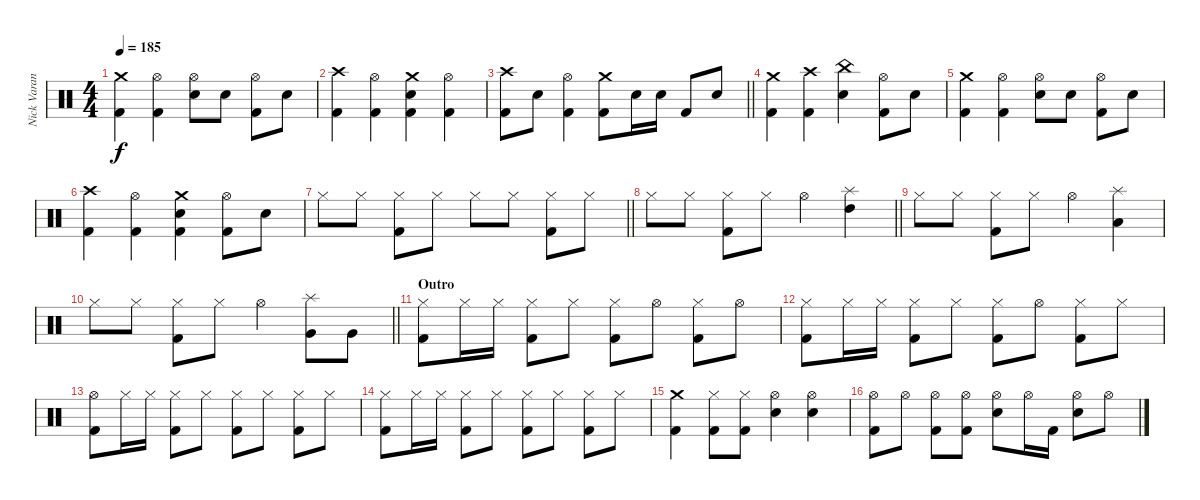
\track ("Nick Varano (Drums)" "Nick Varan") {instrument percussion}
\staff {score}
\articulation defaults
\ts (4 4)
\tempo 185
\clef neutral
\ks c
("Crash medium (hit)" "Kick (hit) 2").4{dy f} ("Hi-Hat (open)" "Kick (hit) 2").4 ("Hi-Hat (open)" "Electric Snare (hit)").8 "Electric Snare (hit)".8 ("Hi-Hat (open)" "Kick (hit) 2").8 "Electric Snare (hit)".8 |
("Crash high (hit)" "Kick (hit) 2").4 ("Hi-Hat (open)" "Kick (hit) 2").4 ("Crash medium (hit)" "Electric Snare (hit)" "Kick (hit) 2").4 ("Hi-Hat (open)" "Kick (hit) 2").4 |
\barLineRight lightlight
("Crash high (hit)" "Kick (hit) 2").8 "Electric Snare (hit)".8 ("Hi-Hat (open)" "Kick (hit) 2").4 ("Crash medium (hit)" "Kick (hit) 2").8 "Electric Snare (hit)".16 "Electric Snare (hit)".16 "Kick (hit) 2".8 "Electric Snare (hit)".8 |
("Crash medium (hit)" "Kick (hit) 2").4 ("Crash high (hit)" "Kick (hit) 2").4 ("China (hit)" "Electric Snare (hit)").4 ("Hi-Hat (open)" "Kick (hit) 2").8 "Electric Snare (hit)".8 |
("Crash medium (hit)" "Kick (hit) 2").4 ("Hi-Hat (open)" "Kick (hit) 2").4 ("Hi-Hat (open)" "Electric Snare (hit)").8 "Electric Snare (hit)".8 ("Hi-Hat (open)" "Kick (hit) 2").8 "Electric Snare (hit)".8 |
("Crash high (hit)" "Kick (hit) 2").4 ("Hi-Hat (open)" "Kick (hit) 2").4 ("Crash medium (hit)" "Electric Snare (hit)" "Kick (hit) 2").4 ("Hi-Hat (open)" "Kick (hit) 2").8 "Electric Snare (hit)".8 |
\barLineRight lightlight "Hi-Hat (closed)".8 "Hi-Hat (closed)".8
("Hi-Hat (closed)" "Kick (hit) 2").8 "Hi-Hat (closed)".8 "Hi-Hat (closed)".8 "Hi-Hat (closed)".8 ("Hi-Hat (closed)" "Kick (hit) 2").8 "Hi-Hat (closed)".8 |
\barLineRight lightlight "Hi-Hat (closed)".8 "Hi-Hat (closed)".8
("Hi-Hat (closed)" "Kick (hit) 2").8 "Hi-Hat (closed)".8 "Hi-Hat (open)".4 ("Splash (hit)" "High Tom (hit)").4 |
"Hi-Hat (closed)".8 "Hi-Hat (closed)".8 ("Hi-Hat (closed)" "Kick (hit) 2").8 "Hi-Hat (closed)".8 "Hi-Hat (open)".4 ("Splash (hit)" "Low Tom (hit)").4 |
\barLineRight lightlight "Hi-Hat (closed)".8 "Hi-Hat (closed)".8
("Hi-Hat (closed)" "Kick (hit) 2").8 "Hi-Hat (closed)".8 "Hi-Hat (open)".4 ("Splash (hit)" "Very Low Tom (hit)").8 "Very Low Tom (hit)".8 |
\section ("" "Outro")
("Hi-Hat (closed)" "Kick (hit) 2").8 "Hi-Hat (closed)".16 "Hi-Hat (closed)".16 ("Hi-Hat (closed)" "Kick (hit) 2").8 "Hi-Hat (closed)".8 ("Hi-Hat (closed)" "Kick (hit) 2").8 "Hi-Hat (open)".8 ("Hi-Hat (closed)" "Kick (hit) 2").8 "Hi-Hat (open)".8 |
("Hi-Hat (closed)" "Kick (hit) 2").8 "Hi-Hat (closed)".16 "Hi-Hat (closed)".16 ("Hi-Hat (closed)" "Kick (hit) 2").8 "Hi-Hat (closed)".8 ("Hi-Hat (closed)" "Kick (hit) 2").8 "Hi-Hat (open)".8 ("Hi-Hat (closed)" "Kick (hit) 2").8 "Hi-Hat (closed)".8 |
("Hi-Hat (open)" "Kick (hit) 2").8 "Hi-Hat (closed)".16 "Hi-Hat (closed)".16 ("Hi-Hat (closed)" "Kick (hit) 2").8 "Hi-Hat (closed)".8 ("Hi-Hat (closed)" "Kick (hit) 2").8 "Hi-Hat (closed)".8 ("Hi-Hat (closed)" "Kick (hit) 2").8 "Hi-Hat (closed)".8 |
("Hi-Hat (closed)" "Kick (hit) 2").8 "Hi-Hat (closed)".16 "Hi-Hat (closed)".16 ("Hi-Hat (closed)" "Kick (hit) 2").8 "Hi-Hat (closed)".8 ("Hi-Hat (closed)" "Kick (hit) 2").8 "Hi-Hat (closed)".8 ("Hi-Hat (closed)" "Kick (hit) 2").8 "Hi-Hat (closed)".8 |
("Crash medium (hit)" "Kick (hit) 2").4 ("Hi-Hat (closed)" "Kick (hit) 2").8 ("Hi-Hat (closed)" "Kick (hit) 2").8 ("Hi-Hat (open)" "Electric Snare (hit)").4 ("Hi-Hat (open)" "Electric Snare (hit)").4 |
("Hi-Hat (open)" "Kick (hit) 2").8 "Hi-Hat (open)".8 ("Hi-Hat (open)" "Kick (hit) 2").8 ("Hi-Hat (open)" "Kick (hit) 2").8 ("Hi-Hat (open)" "Electric Snare (hit)").8 "Hi-Hat (open)".16 "Kick (hit) 2".16 ("Hi-Hat (open)" "Electric Snare (hit)").8 "Hi-Hat (open)".8
